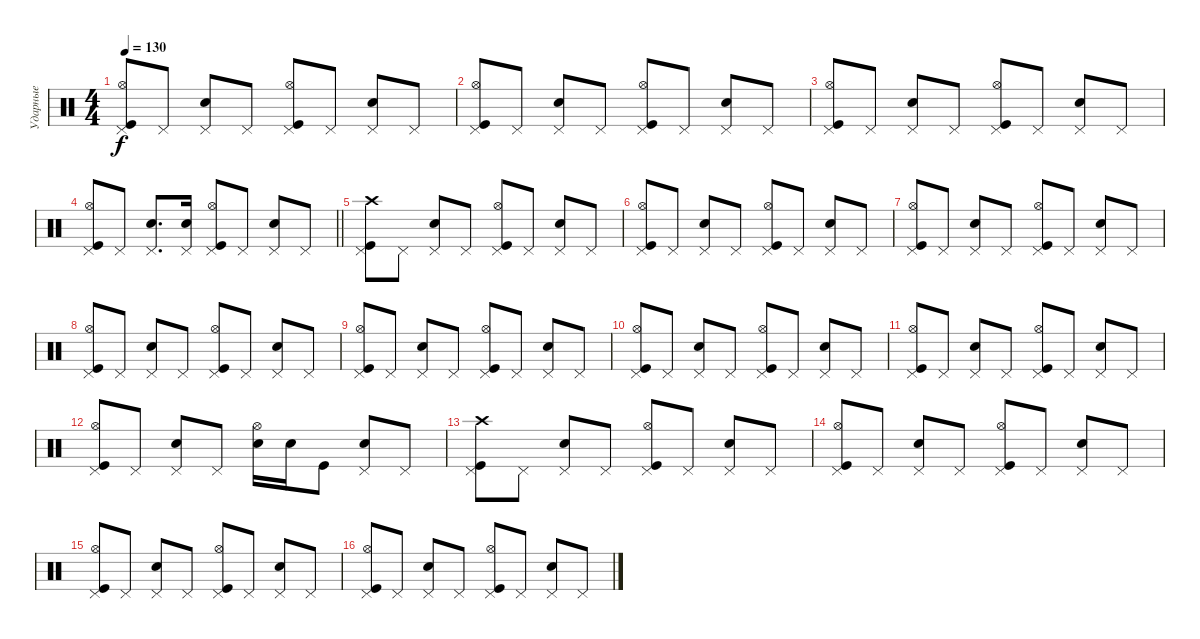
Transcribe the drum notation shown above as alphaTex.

\track ("Ударные" "Ударные") {instrument percussion}
\staff {score}
\articulation defaults
\ts (4 4)
\tempo 130
\clef neutral
\ks c
("Pedal Hi-Hat (hit)" "Hi-Hat (open)" "Kick (hit)").8{dy f} "Pedal Hi-Hat (hit)".8 ("Pedal Hi-Hat (hit)" "Snare (hit) 2").8 "Pedal Hi-Hat (hit)".8 ("Pedal Hi-Hat (hit)" "Hi-Hat (open)" "Kick (hit)").8 "Pedal Hi-Hat (hit)".8 ("Pedal Hi-Hat (hit)" "Snare (hit) 2").8 "Pedal Hi-Hat (hit)".8 |
("Pedal Hi-Hat (hit)" "Hi-Hat (open)" "Kick (hit)").8 "Pedal Hi-Hat (hit)".8 ("Pedal Hi-Hat (hit)" "Snare (hit) 2").8 "Pedal Hi-Hat (hit)".8 ("Pedal Hi-Hat (hit)" "Hi-Hat (open)" "Kick (hit)").8 "Pedal Hi-Hat (hit)".8 ("Pedal Hi-Hat (hit)" "Snare (hit) 2").8 "Pedal Hi-Hat (hit)".8 |
("Pedal Hi-Hat (hit)" "Hi-Hat (open)" "Kick (hit)").8 "Pedal Hi-Hat (hit)".8 ("Pedal Hi-Hat (hit)" "Snare (hit) 2").8 "Pedal Hi-Hat (hit)".8 ("Pedal Hi-Hat (hit)" "Hi-Hat (open)" "Kick (hit)").8 "Pedal Hi-Hat (hit)".8 ("Pedal Hi-Hat (hit)" "Snare (hit) 2").8 "Pedal Hi-Hat (hit)".8 |
\barLineRight lightlight
("Pedal Hi-Hat (hit)" "Hi-Hat (open)" "Kick (hit)").8 "Pedal Hi-Hat (hit)".8 ("Pedal Hi-Hat (hit)" "Snare (hit) 2").8{d} ("Pedal Hi-Hat (hit)" "Snare (hit) 2").16 ("Pedal Hi-Hat (hit)" "Hi-Hat (open)" "Kick (hit)").8 "Pedal Hi-Hat (hit)".8 ("Pedal Hi-Hat (hit)" "Snare (hit) 2").8 "Pedal Hi-Hat (hit)".8 |
("Pedal Hi-Hat (hit)" "Crash high (hit)" "Kick (hit)").8 "Pedal Hi-Hat (hit)".8 ("Pedal Hi-Hat (hit)" "Snare (hit) 2").8 "Pedal Hi-Hat (hit)".8 ("Pedal Hi-Hat (hit)" "Hi-Hat (open)" "Kick (hit)").8 "Pedal Hi-Hat (hit)".8 ("Pedal Hi-Hat (hit)" "Snare (hit) 2").8 "Pedal Hi-Hat (hit)".8 |
("Pedal Hi-Hat (hit)" "Hi-Hat (open)" "Kick (hit)").8 "Pedal Hi-Hat (hit)".8 ("Pedal Hi-Hat (hit)" "Snare (hit) 2").8 "Pedal Hi-Hat (hit)".8 ("Pedal Hi-Hat (hit)" "Hi-Hat (open)" "Kick (hit)").8 "Pedal Hi-Hat (hit)".8 ("Pedal Hi-Hat (hit)" "Snare (hit) 2").8 "Pedal Hi-Hat (hit)".8 |
("Pedal Hi-Hat (hit)" "Hi-Hat (open)" "Kick (hit)").8 "Pedal Hi-Hat (hit)".8 ("Pedal Hi-Hat (hit)" "Snare (hit) 2").8 "Pedal Hi-Hat (hit)".8 ("Pedal Hi-Hat (hit)" "Hi-Hat (open)" "Kick (hit)").8 "Pedal Hi-Hat (hit)".8 ("Pedal Hi-Hat (hit)" "Snare (hit) 2").8 "Pedal Hi-Hat (hit)".8 |
("Pedal Hi-Hat (hit)" "Hi-Hat (open)" "Kick (hit)").8 "Pedal Hi-Hat (hit)".8 ("Pedal Hi-Hat (hit)" "Snare (hit) 2").8 "Pedal Hi-Hat (hit)".8 ("Pedal Hi-Hat (hit)" "Hi-Hat (open)" "Kick (hit)").8 "Pedal Hi-Hat (hit)".8 ("Pedal Hi-Hat (hit)" "Snare (hit) 2").8 "Pedal Hi-Hat (hit)".8 |
("Pedal Hi-Hat (hit)" "Hi-Hat (open)" "Kick (hit)").8 "Pedal Hi-Hat (hit)".8 ("Pedal Hi-Hat (hit)" "Snare (hit) 2").8 "Pedal Hi-Hat (hit)".8 ("Pedal Hi-Hat (hit)" "Hi-Hat (open)" "Kick (hit)").8 "Pedal Hi-Hat (hit)".8 ("Pedal Hi-Hat (hit)" "Snare (hit) 2").8 "Pedal Hi-Hat (hit)".8 |
("Pedal Hi-Hat (hit)" "Hi-Hat (open)" "Kick (hit)").8 "Pedal Hi-Hat (hit)".8 ("Pedal Hi-Hat (hit)" "Snare (hit) 2").8 "Pedal Hi-Hat (hit)".8 ("Pedal Hi-Hat (hit)" "Hi-Hat (open)" "Kick (hit)").8 "Pedal Hi-Hat (hit)".8 ("Pedal Hi-Hat (hit)" "Snare (hit) 2").8 "Pedal Hi-Hat (hit)".8 |
("Pedal Hi-Hat (hit)" "Hi-Hat (open)" "Kick (hit)").8 "Pedal Hi-Hat (hit)".8 ("Pedal Hi-Hat (hit)" "Snare (hit) 2").8 "Pedal Hi-Hat (hit)".8 ("Pedal Hi-Hat (hit)" "Hi-Hat (open)" "Kick (hit)").8 "Pedal Hi-Hat (hit)".8 ("Pedal Hi-Hat (hit)" "Snare (hit) 2").8 "Pedal Hi-Hat (hit)".8 |
("Pedal Hi-Hat (hit)" "Hi-Hat (open)" "Kick (hit)").8 "Pedal Hi-Hat (hit)".8 ("Pedal Hi-Hat (hit)" "Snare (hit) 2").8 "Pedal Hi-Hat (hit)".8 ("Snare (hit) 2" "Hi-Hat (open)").16 "Snare (hit) 2".16 "Kick (hit)".8 ("Snare (hit) 2" "Pedal Hi-Hat (hit)").8 "Pedal Hi-Hat (hit)".8 |
("Pedal Hi-Hat (hit)" "Crash high (hit)" "Kick (hit)").8 "Pedal Hi-Hat (hit)".8 ("Pedal Hi-Hat (hit)" "Snare (hit) 2").8 "Pedal Hi-Hat (hit)".8 ("Pedal Hi-Hat (hit)" "Hi-Hat (open)" "Kick (hit)").8 "Pedal Hi-Hat (hit)".8 ("Pedal Hi-Hat (hit)" "Snare (hit) 2").8 "Pedal Hi-Hat (hit)".8 |
("Pedal Hi-Hat (hit)" "Hi-Hat (open)" "Kick (hit)").8 "Pedal Hi-Hat (hit)".8 ("Pedal Hi-Hat (hit)" "Snare (hit) 2").8 "Pedal Hi-Hat (hit)".8 ("Pedal Hi-Hat (hit)" "Hi-Hat (open)" "Kick (hit)").8 "Pedal Hi-Hat (hit)".8 ("Pedal Hi-Hat (hit)" "Snare (hit) 2").8 "Pedal Hi-Hat (hit)".8 |
("Pedal Hi-Hat (hit)" "Hi-Hat (open)" "Kick (hit)").8 "Pedal Hi-Hat (hit)".8 ("Pedal Hi-Hat (hit)" "Snare (hit) 2").8 "Pedal Hi-Hat (hit)".8 ("Pedal Hi-Hat (hit)" "Hi-Hat (open)" "Kick (hit)").8 "Pedal Hi-Hat (hit)".8 ("Pedal Hi-Hat (hit)" "Snare (hit) 2").8 "Pedal Hi-Hat (hit)".8 |
("Pedal Hi-Hat (hit)" "Hi-Hat (open)" "Kick (hit)").8 "Pedal Hi-Hat (hit)".8 ("Pedal Hi-Hat (hit)" "Snare (hit) 2").8 "Pedal Hi-Hat (hit)".8 ("Pedal Hi-Hat (hit)" "Hi-Hat (open)" "Kick (hit)").8 "Pedal Hi-Hat (hit)".8 ("Pedal Hi-Hat (hit)" "Snare (hit) 2").8 "Pedal Hi-Hat (hit)".8
